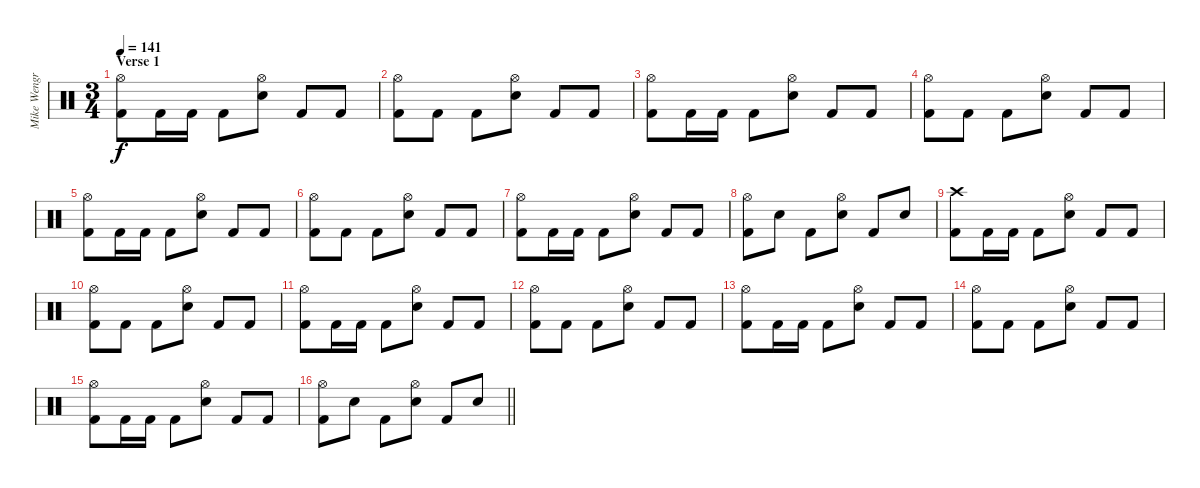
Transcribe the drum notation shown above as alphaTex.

\track ("Mike Wengren (Drums)" "Mike Wengr") {instrument percussion}
\staff {score}
\articulation defaults
\ts (3 4)
\section ("" "Verse 1")
\tempo 141
\clef neutral
\ks c
("Hi-Hat (open)" "Kick (hit) 2").8{dy f} "Kick (hit) 2".16 "Kick (hit) 2".16 "Kick (hit) 2".8 ("Hi-Hat (open)" "Electric Snare (hit)").8 "Kick (hit) 2".8 "Kick (hit) 2".8 |
("Hi-Hat (open)" "Kick (hit) 2").8 "Kick (hit) 2".8 "Kick (hit) 2".8 ("Hi-Hat (open)" "Electric Snare (hit)").8 "Kick (hit) 2".8 "Kick (hit) 2".8 |
("Hi-Hat (open)" "Kick (hit) 2").8 "Kick (hit) 2".16 "Kick (hit) 2".16 "Kick (hit) 2".8 ("Hi-Hat (open)" "Electric Snare (hit)").8 "Kick (hit) 2".8 "Kick (hit) 2".8 |
("Hi-Hat (open)" "Kick (hit) 2").8 "Kick (hit) 2".8 "Kick (hit) 2".8 ("Hi-Hat (open)" "Electric Snare (hit)").8 "Kick (hit) 2".8 "Kick (hit) 2".8 |
("Hi-Hat (open)" "Kick (hit) 2").8 "Kick (hit) 2".16 "Kick (hit) 2".16 "Kick (hit) 2".8 ("Hi-Hat (open)" "Electric Snare (hit)").8 "Kick (hit) 2".8 "Kick (hit) 2".8 |
("Hi-Hat (open)" "Kick (hit) 2").8 "Kick (hit) 2".8 "Kick (hit) 2".8 ("Hi-Hat (open)" "Electric Snare (hit)").8 "Kick (hit) 2".8 "Kick (hit) 2".8 |
("Hi-Hat (open)" "Kick (hit) 2").8 "Kick (hit) 2".16 "Kick (hit) 2".16 "Kick (hit) 2".8 ("Hi-Hat (open)" "Electric Snare (hit)").8 "Kick (hit) 2".8 "Kick (hit) 2".8 |
("Hi-Hat (open)" "Kick (hit) 2").8 "Electric Snare (hit)".8 "Kick (hit) 2".8 ("Hi-Hat (open)" "Electric Snare (hit)").8 "Kick (hit) 2".8 "Electric Snare (hit)".8 |
("Crash high (hit)" "Kick (hit) 2").8 "Kick (hit) 2".16 "Kick (hit) 2".16 "Kick (hit) 2".8 ("Hi-Hat (open)" "Electric Snare (hit)").8 "Kick (hit) 2".8 "Kick (hit) 2".8 |
("Hi-Hat (open)" "Kick (hit) 2").8 "Kick (hit) 2".8 "Kick (hit) 2".8 ("Hi-Hat (open)" "Electric Snare (hit)").8 "Kick (hit) 2".8 "Kick (hit) 2".8 |
("Hi-Hat (open)" "Kick (hit) 2").8 "Kick (hit) 2".16 "Kick (hit) 2".16 "Kick (hit) 2".8 ("Hi-Hat (open)" "Electric Snare (hit)").8 "Kick (hit) 2".8 "Kick (hit) 2".8 |
("Hi-Hat (open)" "Kick (hit) 2").8 "Kick (hit) 2".8 "Kick (hit) 2".8 ("Hi-Hat (open)" "Electric Snare (hit)").8 "Kick (hit) 2".8 "Kick (hit) 2".8 |
("Hi-Hat (open)" "Kick (hit) 2").8 "Kick (hit) 2".16 "Kick (hit) 2".16 "Kick (hit) 2".8 ("Hi-Hat (open)" "Electric Snare (hit)").8 "Kick (hit) 2".8 "Kick (hit) 2".8 |
("Hi-Hat (open)" "Kick (hit) 2").8 "Kick (hit) 2".8 "Kick (hit) 2".8 ("Hi-Hat (open)" "Electric Snare (hit)").8 "Kick (hit) 2".8 "Kick (hit) 2".8 |
("Hi-Hat (open)" "Kick (hit) 2").8 "Kick (hit) 2".16 "Kick (hit) 2".16 "Kick (hit) 2".8 ("Hi-Hat (open)" "Electric Snare (hit)").8 "Kick (hit) 2".8 "Kick (hit) 2".8 |
\barLineRight lightlight
("Hi-Hat (open)" "Kick (hit) 2").8 "Electric Snare (hit)".8 "Kick (hit) 2".8 ("Hi-Hat (open)" "Electric Snare (hit)").8 "Kick (hit) 2".8 "Electric Snare (hit)".8
